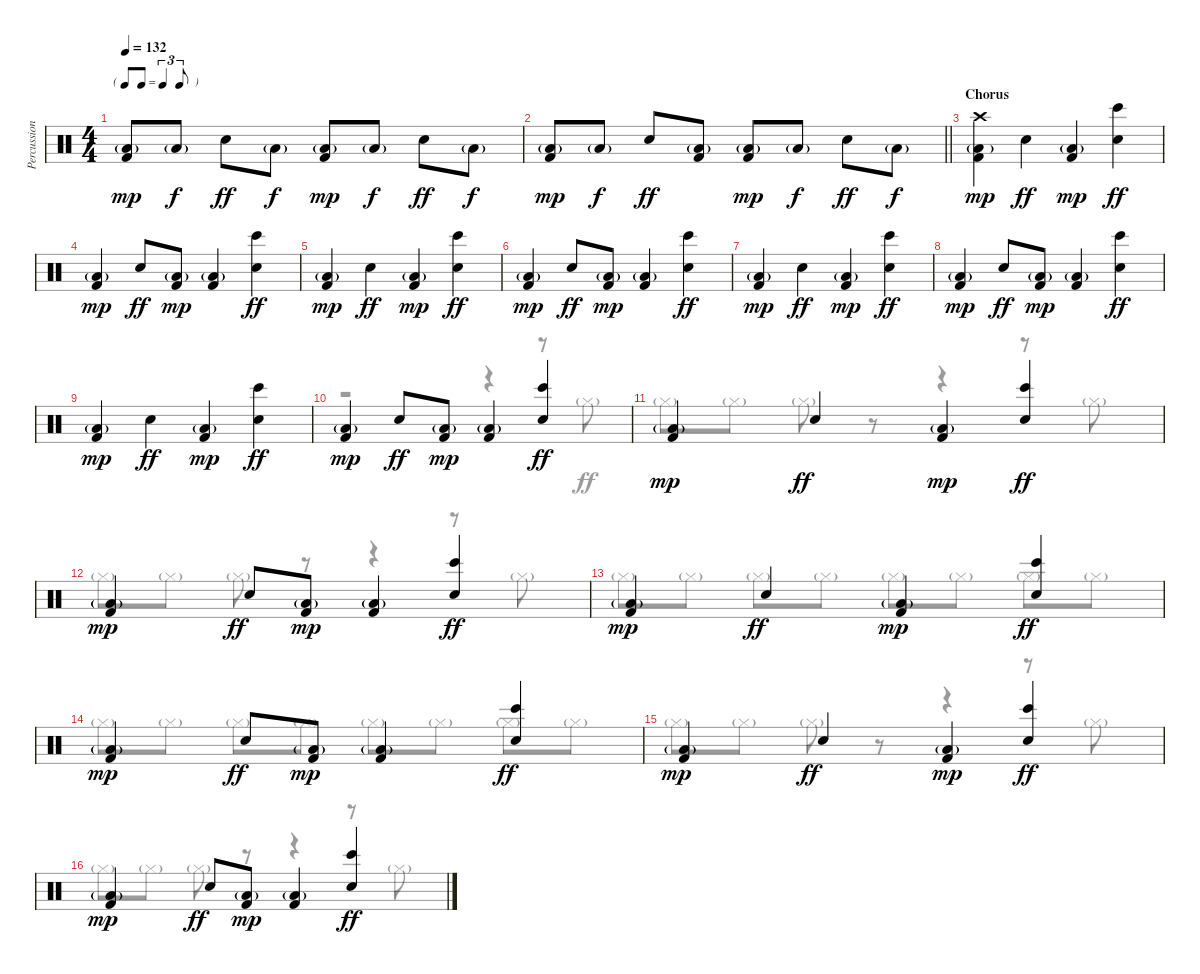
\track ("Percussion" "Percussion") {instrument percussion}
\staff {score}
\articulation defaults
\voice
\ts (4 4)
\tf triplet8th
\tempo 132
\clef neutral
\ks c
("Kick (hit) 2" "Low Floor Tom (hit)"{g}).8{dy mp} "Low Floor Tom (hit)"{g}.8{dy f} "Snare (hit) 2".8{dy ff} "Low Floor Tom (hit)"{g}.8{dy f} ("Kick (hit) 2" "Low Floor Tom (hit)"{g}).8{dy mp} "Low Floor Tom (hit)"{g}.8{dy f} "Snare (hit) 2".8{dy ff} "Low Floor Tom (hit)"{g}.8{dy f} |
\barLineRight lightlight
("Kick (hit) 2" "Low Floor Tom (hit)"{g}).8{dy mp} "Low Floor Tom (hit)"{g}.8{dy f} "Snare (hit) 2".8{dy ff} ("Kick (hit) 2" "Low Floor Tom (hit)"{g}).8 ("Kick (hit) 2" "Low Floor Tom (hit)"{g}).8{dy mp} "Low Floor Tom (hit)"{g}.8{dy f} "Snare (hit) 2".8{dy ff} "Low Floor Tom (hit)"{g}.8{dy f} |
\section ("" "Chorus")
("Kick (hit) 2" "Low Floor Tom (hit)"{g} "Crash high (hit)").4{dy mp} "Snare (hit) 2".4{dy ff} ("Kick (hit) 2" "Low Floor Tom (hit)"{g}).4{dy mp} ("Snare (hit) 2" "Bongo High (hit)").4{dy ff} |
("Kick (hit) 2" "Low Floor Tom (hit)"{g}).4{dy mp} "Snare (hit) 2".8{dy ff} ("Kick (hit) 2" "Low Floor Tom (hit)"{g}).8{dy mp} ("Kick (hit) 2" "Low Floor Tom (hit)"{g}).4 ("Snare (hit) 2" "Bongo High (hit)").4{dy ff} |
("Kick (hit) 2" "Low Floor Tom (hit)"{g}).4{dy mp} "Snare (hit) 2".4{dy ff} ("Kick (hit) 2" "Low Floor Tom (hit)"{g}).4{dy mp} ("Snare (hit) 2" "Bongo High (hit)").4{dy ff} |
("Kick (hit) 2" "Low Floor Tom (hit)"{g}).4{dy mp} "Snare (hit) 2".8{dy ff} ("Kick (hit) 2" "Low Floor Tom (hit)"{g}).8{dy mp} ("Kick (hit) 2" "Low Floor Tom (hit)"{g}).4 ("Snare (hit) 2" "Bongo High (hit)").4{dy ff} |
("Kick (hit) 2" "Low Floor Tom (hit)"{g}).4{dy mp} "Snare (hit) 2".4{dy ff} ("Kick (hit) 2" "Low Floor Tom (hit)"{g}).4{dy mp} ("Snare (hit) 2" "Bongo High (hit)").4{dy ff} |
("Kick (hit) 2" "Low Floor Tom (hit)"{g}).4{dy mp} "Snare (hit) 2".8{dy ff} ("Kick (hit) 2" "Low Floor Tom (hit)"{g}).8{dy mp} ("Kick (hit) 2" "Low Floor Tom (hit)"{g}).4 ("Snare (hit) 2" "Bongo High (hit)").4{dy ff} |
("Kick (hit) 2" "Low Floor Tom (hit)"{g}).4{dy mp} "Snare (hit) 2".4{dy ff} ("Kick (hit) 2" "Low Floor Tom (hit)"{g}).4{dy mp} ("Snare (hit) 2" "Bongo High (hit)").4{dy ff} |
("Kick (hit) 2" "Low Floor Tom (hit)"{g}).4{dy mp} "Snare (hit) 2".8{dy ff} ("Kick (hit) 2" "Low Floor Tom (hit)"{g}).8{dy mp} ("Kick (hit) 2" "Low Floor Tom (hit)"{g}).4 ("Snare (hit) 2" "Bongo High (hit)").4{dy ff} |
("Kick (hit) 2" "Low Floor Tom (hit)"{g}).4{dy mp} "Snare (hit) 2".4{dy ff} ("Kick (hit) 2" "Low Floor Tom (hit)"{g}).4{dy mp} ("Snare (hit) 2" "Bongo High (hit)").4{dy ff} |
("Kick (hit) 2" "Low Floor Tom (hit)"{g}).4{dy mp} "Snare (hit) 2".8{dy ff} ("Kick (hit) 2" "Low Floor Tom (hit)"{g}).8{dy mp} ("Kick (hit) 2" "Low Floor Tom (hit)"{g}).4 ("Snare (hit) 2" "Bongo High (hit)").4{dy ff} |
("Kick (hit) 2" "Low Floor Tom (hit)"{g}).4{dy mp} "Snare (hit) 2".4{dy ff} ("Kick (hit) 2" "Low Floor Tom (hit)"{g}).4{dy mp} ("Snare (hit) 2" "Bongo High (hit)").4{dy ff} |
("Kick (hit) 2" "Low Floor Tom (hit)"{g}).4{dy mp} "Snare (hit) 2".8{dy ff} ("Kick (hit) 2" "Low Floor Tom (hit)"{g}).8{dy mp} ("Kick (hit) 2" "Low Floor Tom (hit)"{g}).4 ("Snare (hit) 2" "Bongo High (hit)").4{dy ff} |
("Kick (hit) 2" "Low Floor Tom (hit)"{g}).4{dy mp} "Snare (hit) 2".4{dy ff} ("Kick (hit) 2" "Low Floor Tom (hit)"{g}).4{dy mp} ("Snare (hit) 2" "Bongo High (hit)").4{dy ff} |
("Kick (hit) 2" "Low Floor Tom (hit)"{g}).4{dy mp} "Snare (hit) 2".8{dy ff} ("Kick (hit) 2" "Low Floor Tom (hit)"{g}).8{dy mp} ("Kick (hit) 2" "Low Floor Tom (hit)"{g}).4 ("Snare (hit) 2" "Bongo High (hit)").4{dy ff}
\voice
\clef neutral
\ottava regular
\simile none
\ks c
|
\barLineRight lightlight
|
|
|
|
|
|
|
|
r.2 r.4 r.8 "Hi-Hat (closed)"{g}.8 |
"Hi-Hat (closed)"{g}.8 "Hi-Hat (closed)"{g}.8 "Hi-Hat (closed)"{g}.8 r.8 r.4 r.8 "Hi-Hat (closed)"{g}.8 |
"Hi-Hat (closed)"{g}.8 "Hi-Hat (closed)"{g}.8 "Hi-Hat (closed)"{g}.8 r.8 r.4 r.8 "Hi-Hat (closed)"{g}.8 |
"Hi-Hat (closed)"{g}.8 "Hi-Hat (closed)"{g}.8 "Hi-Hat (closed)"{g}.8 "Hi-Hat (closed)"{g}.8 "Hi-Hat (closed)"{g}.8 "Hi-Hat (closed)"{g}.8 "Hi-Hat (closed)"{g}.8 "Hi-Hat (closed)"{g}.8 |
"Hi-Hat (closed)"{g}.8 "Hi-Hat (closed)"{g}.8 "Hi-Hat (closed)"{g}.8 "Hi-Hat (closed)"{g}.8 "Hi-Hat (closed)"{g}.8 "Hi-Hat (closed)"{g}.8 "Hi-Hat (closed)"{g}.8 "Hi-Hat (closed)"{g}.8 |
"Hi-Hat (closed)"{g}.8 "Hi-Hat (closed)"{g}.8 "Hi-Hat (closed)"{g}.8 r.8 r.4 r.8 "Hi-Hat (closed)"{g}.8 |
"Hi-Hat (closed)"{g}.8 "Hi-Hat (closed)"{g}.8 "Hi-Hat (closed)"{g}.8 r.8 r.4 r.8 "Hi-Hat (closed)"{g}.8
